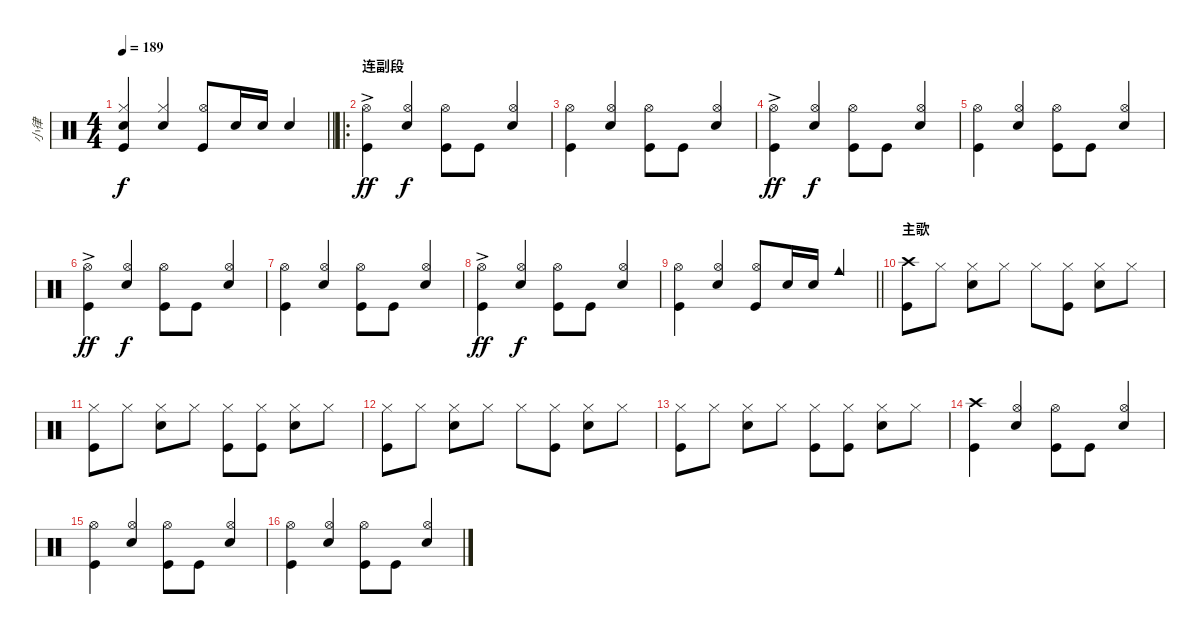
\track ("小律" "小律") {instrument percussion}
\staff {score}
\articulation defaults
\ts (4 4)
\tempo 189
\clef neutral
\barLineRight lightlight
\ks c
("Hi-Hat (closed)" "Snare (hit) 2" "Kick (hit)").4{dy f beam Up} ("Hi-Hat (closed)" "Snare (hit) 2").4{beam Up} ("Hi-Hat (open)" "Kick (hit)").8{beam Up} "Snare (hit) 2".16{beam Up} "Snare (hit) 2".16{beam Up} "Snare (hit) 2".4{beam Up} |
\ro
\section ("" "连副段")
("Kick (hit)" "Hi-Hat (open)"{ac}).4{dy ff} ("Snare (hit) 2" "Hi-Hat (open)").4{dy f beam Up} ("Hi-Hat (open)" "Kick (hit)").8 "Kick (hit)".8 ("Snare (hit) 2" "Hi-Hat (open)").4{beam Up} |
("Hi-Hat (open)" "Kick (hit)").4 ("Hi-Hat (open)" "Snare (hit) 2").4{beam Up} ("Hi-Hat (open)" "Kick (hit)").8 "Kick (hit)".8 ("Hi-Hat (open)" "Snare (hit) 2").4{beam Up} |
("Kick (hit)" "Hi-Hat (open)"{ac}).4{dy ff} ("Snare (hit) 2" "Hi-Hat (open)").4{dy f beam Up} ("Hi-Hat (open)" "Kick (hit)").8 "Kick (hit)".8 ("Snare (hit) 2" "Hi-Hat (open)").4{beam Up} |
("Hi-Hat (open)" "Kick (hit)").4 ("Hi-Hat (open)" "Snare (hit) 2").4{beam Up} ("Hi-Hat (open)" "Kick (hit)").8 "Kick (hit)".8 ("Hi-Hat (open)" "Snare (hit) 2").4{beam Up} |
("Kick (hit)" "Hi-Hat (open)"{ac}).4{dy ff} ("Snare (hit) 2" "Hi-Hat (open)").4{dy f beam Up} ("Hi-Hat (open)" "Kick (hit)").8 "Kick (hit)".8 ("Snare (hit) 2" "Hi-Hat (open)").4{beam Up} |
("Hi-Hat (open)" "Kick (hit)").4 ("Hi-Hat (open)" "Snare (hit) 2").4{beam Up} ("Hi-Hat (open)" "Kick (hit)").8 "Kick (hit)".8 ("Hi-Hat (open)" "Snare (hit) 2").4{beam Up} |
("Kick (hit)" "Hi-Hat (open)"{ac}).4{dy ff} ("Snare (hit) 2" "Hi-Hat (open)").4{dy f beam Up} ("Hi-Hat (open)" "Kick (hit)").8 "Kick (hit)".8 ("Snare (hit) 2" "Hi-Hat (open)").4{beam Up} |
\barLineRight lightlight
("Hi-Hat (open)" "Kick (hit)").4 ("Hi-Hat (open)" "Snare (hit) 2").4{beam Up} ("Hi-Hat (open)" "Kick (hit)").8{beam Up} "Snare (hit)".16{beam Up} "Snare (hit) 2".16{beam Up} "Cowbell medium (hit)".4{beam Up} |
\section ("" "主歌")
("Crash high (hit)" "Kick (hit)").8 "Hi-Hat (closed)".8 ("Hi-Hat (closed)" "Snare (hit) 2").8 "Hi-Hat (closed)".8 "Hi-Hat (closed)".8 ("Hi-Hat (closed)" "Kick (hit)").8 ("Hi-Hat (closed)" "Snare (hit) 2").8 "Hi-Hat (closed)".8 |
("Hi-Hat (closed)" "Kick (hit)").8 "Hi-Hat (closed)".8 ("Hi-Hat (closed)" "Snare (hit) 2").8 "Hi-Hat (closed)".8 ("Hi-Hat (closed)" "Kick (hit)").8 ("Hi-Hat (closed)" "Kick (hit)").8 ("Snare (hit) 2" "Hi-Hat (closed)").8 "Hi-Hat (closed)".8 |
("Hi-Hat (closed)" "Kick (hit)").8 "Hi-Hat (closed)".8 ("Hi-Hat (closed)" "Snare (hit) 2").8 "Hi-Hat (closed)".8 "Hi-Hat (closed)".8 ("Hi-Hat (closed)" "Kick (hit)").8 ("Hi-Hat (closed)" "Snare (hit) 2").8 "Hi-Hat (closed)".8 |
("Hi-Hat (closed)" "Kick (hit)").8 "Hi-Hat (closed)".8 ("Hi-Hat (closed)" "Snare (hit) 2").8 "Hi-Hat (closed)".8 ("Hi-Hat (closed)" "Kick (hit)").8 ("Hi-Hat (closed)" "Kick (hit)").8 ("Hi-Hat (closed)" "Snare (hit) 2").8 "Hi-Hat (closed)".8 |
("Kick (hit)" "Crash high (hit)").4 ("Snare (hit) 2" "Hi-Hat (open)").4{beam Up} ("Hi-Hat (open)" "Kick (hit)").8 "Kick (hit)".8 ("Snare (hit) 2" "Hi-Hat (open)").4{beam Up} |
("Hi-Hat (open)" "Kick (hit)").4 ("Hi-Hat (open)" "Snare (hit) 2").4{beam Up} ("Hi-Hat (open)" "Kick (hit)").8 "Kick (hit)".8 ("Hi-Hat (open)" "Snare (hit) 2").4{beam Up} |
("Kick (hit)" "Hi-Hat (open)").4 ("Snare (hit) 2" "Hi-Hat (open)").4{beam Up} ("Hi-Hat (open)" "Kick (hit)").8 "Kick (hit)".8 ("Snare (hit) 2" "Hi-Hat (open)").4{beam Up}
